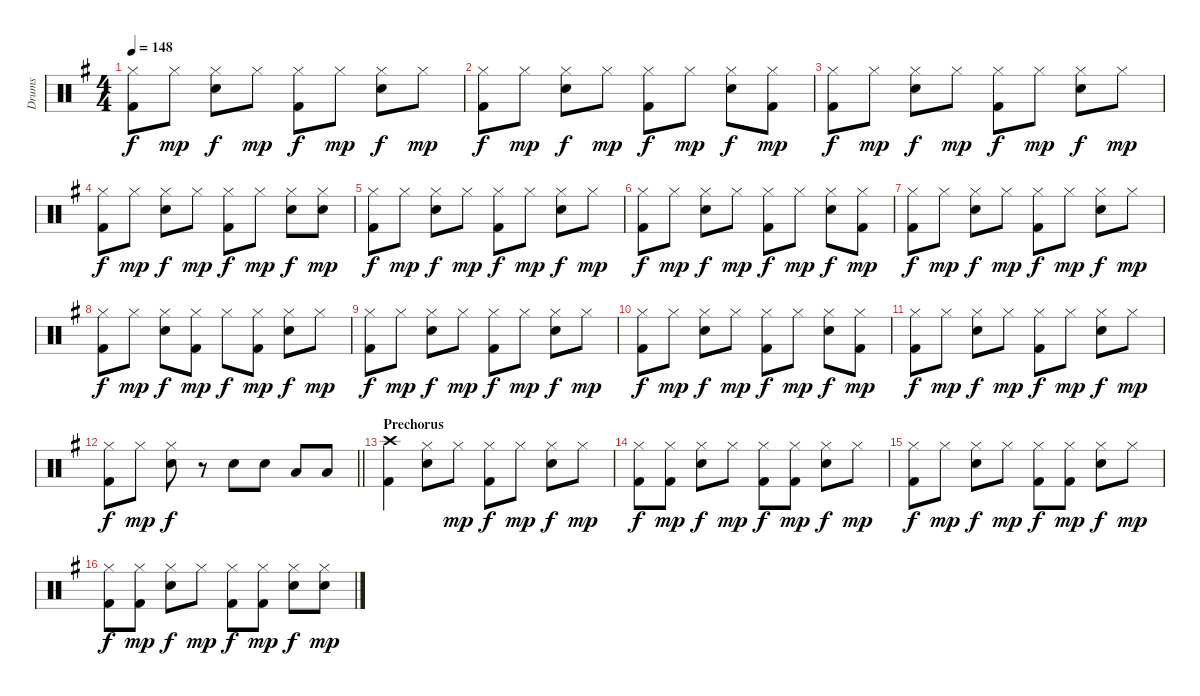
\track ("Drums" "Drums") {instrument percussion}
\staff {score}
\articulation defaults
\ts (4 4)
\tempo 148
\clef neutral
\ks g
("Hi-Hat (closed)" "Kick (hit) 2").8{dy f} "Hi-Hat (closed)".8{dy mp} ("Hi-Hat (closed)" "Electric Snare (hit)").8{dy f} "Hi-Hat (closed)".8{dy mp} ("Hi-Hat (closed)" "Kick (hit) 2").8{dy f} "Hi-Hat (closed)".8{dy mp} ("Hi-Hat (closed)" "Electric Snare (hit)").8{dy f} "Hi-Hat (closed)".8{dy mp} |
("Hi-Hat (closed)" "Kick (hit) 2").8{dy f} "Hi-Hat (closed)".8{dy mp} ("Hi-Hat (closed)" "Electric Snare (hit)").8{dy f} "Hi-Hat (closed)".8{dy mp} ("Hi-Hat (closed)" "Kick (hit) 2").8{dy f} "Hi-Hat (closed)".8{dy mp} ("Hi-Hat (closed)" "Electric Snare (hit)").8{dy f} ("Hi-Hat (closed)" "Kick (hit) 2").8{dy mp} |
("Hi-Hat (closed)" "Kick (hit) 2").8{dy f} "Hi-Hat (closed)".8{dy mp} ("Hi-Hat (closed)" "Electric Snare (hit)").8{dy f} "Hi-Hat (closed)".8{dy mp} ("Hi-Hat (closed)" "Kick (hit) 2").8{dy f} "Hi-Hat (closed)".8{dy mp} ("Hi-Hat (closed)" "Electric Snare (hit)").8{dy f} "Hi-Hat (closed)".8{dy mp} |
("Hi-Hat (closed)" "Kick (hit) 2").8{dy f} "Hi-Hat (closed)".8{dy mp} ("Hi-Hat (closed)" "Electric Snare (hit)").8{dy f} "Hi-Hat (closed)".8{dy mp} ("Hi-Hat (closed)" "Kick (hit) 2").8{dy f} "Hi-Hat (closed)".8{dy mp} ("Hi-Hat (closed)" "Electric Snare (hit)").8{dy f} ("Hi-Hat (closed)" "Electric Snare (hit)").8{dy mp} |
("Hi-Hat (closed)" "Kick (hit) 2").8{dy f} "Hi-Hat (closed)".8{dy mp} ("Hi-Hat (closed)" "Electric Snare (hit)").8{dy f} "Hi-Hat (closed)".8{dy mp} ("Hi-Hat (closed)" "Kick (hit) 2").8{dy f} "Hi-Hat (closed)".8{dy mp} ("Hi-Hat (closed)" "Electric Snare (hit)").8{dy f} "Hi-Hat (closed)".8{dy mp} |
("Hi-Hat (closed)" "Kick (hit) 2").8{dy f} "Hi-Hat (closed)".8{dy mp} ("Hi-Hat (closed)" "Electric Snare (hit)").8{dy f} "Hi-Hat (closed)".8{dy mp} ("Hi-Hat (closed)" "Kick (hit) 2").8{dy f} "Hi-Hat (closed)".8{dy mp} ("Hi-Hat (closed)" "Electric Snare (hit)").8{dy f} ("Hi-Hat (closed)" "Kick (hit) 2").8{dy mp} |
("Hi-Hat (closed)" "Kick (hit) 2").8{dy f} "Hi-Hat (closed)".8{dy mp} ("Hi-Hat (closed)" "Electric Snare (hit)").8{dy f} "Hi-Hat (closed)".8{dy mp} ("Hi-Hat (closed)" "Kick (hit) 2").8{dy f} "Hi-Hat (closed)".8{dy mp} ("Hi-Hat (closed)" "Electric Snare (hit)").8{dy f} "Hi-Hat (closed)".8{dy mp} |
("Hi-Hat (closed)" "Kick (hit) 2").8{dy f} "Hi-Hat (closed)".8{dy mp} ("Hi-Hat (closed)" "Electric Snare (hit)").8{dy f} ("Hi-Hat (closed)" "Kick (hit) 2").8{dy mp} "Hi-Hat (closed)".8{dy f} ("Hi-Hat (closed)" "Kick (hit) 2").8{dy mp} ("Hi-Hat (closed)" "Electric Snare (hit)").8{dy f} "Hi-Hat (closed)".8{dy mp} |
("Hi-Hat (closed)" "Kick (hit) 2").8{dy f} "Hi-Hat (closed)".8{dy mp} ("Hi-Hat (closed)" "Electric Snare (hit)").8{dy f} "Hi-Hat (closed)".8{dy mp} ("Hi-Hat (closed)" "Kick (hit) 2").8{dy f} "Hi-Hat (closed)".8{dy mp} ("Hi-Hat (closed)" "Electric Snare (hit)").8{dy f} "Hi-Hat (closed)".8{dy mp} |
("Hi-Hat (closed)" "Kick (hit) 2").8{dy f} "Hi-Hat (closed)".8{dy mp} ("Hi-Hat (closed)" "Electric Snare (hit)").8{dy f} "Hi-Hat (closed)".8{dy mp} ("Hi-Hat (closed)" "Kick (hit) 2").8{dy f} "Hi-Hat (closed)".8{dy mp} ("Hi-Hat (closed)" "Electric Snare (hit)").8{dy f} ("Hi-Hat (closed)" "Kick (hit) 2").8{dy mp} |
("Hi-Hat (closed)" "Kick (hit) 2").8{dy f} "Hi-Hat (closed)".8{dy mp} ("Hi-Hat (closed)" "Electric Snare (hit)").8{dy f} "Hi-Hat (closed)".8{dy mp} ("Hi-Hat (closed)" "Kick (hit) 2").8{dy f} "Hi-Hat (closed)".8{dy mp} ("Hi-Hat (closed)" "Electric Snare (hit)").8{dy f} "Hi-Hat (closed)".8{dy mp} |
\barLineRight lightlight
("Hi-Hat (closed)" "Kick (hit) 2").8{dy f} "Hi-Hat (closed)".8{dy mp} ("Hi-Hat (closed)" "Electric Snare (hit)").8{dy f} r.8 "Electric Snare (hit)".8 "Electric Snare (hit)".8 "Low Tom (hit)".8 "Low Tom (hit)".8 |
\section ("" "Prechorus")
("Crash high (hit)" "Kick (hit) 2").4 ("Hi-Hat (closed)" "Electric Snare (hit)").8 "Hi-Hat (closed)".8{dy mp} ("Hi-Hat (closed)" "Kick (hit) 2").8{dy f} "Hi-Hat (closed)".8{dy mp} ("Hi-Hat (closed)" "Electric Snare (hit)").8{dy f} "Hi-Hat (closed)".8{dy mp} |
("Hi-Hat (closed)" "Kick (hit) 2").8{dy f} ("Hi-Hat (closed)" "Kick (hit) 2").8{dy mp} ("Hi-Hat (closed)" "Electric Snare (hit)").8{dy f} "Hi-Hat (closed)".8{dy mp} ("Hi-Hat (closed)" "Kick (hit) 2").8{dy f} ("Hi-Hat (closed)" "Kick (hit) 2").8{dy mp} ("Hi-Hat (closed)" "Electric Snare (hit)").8{dy f} "Hi-Hat (closed)".8{dy mp} |
("Hi-Hat (closed)" "Kick (hit) 2").8{dy f} "Hi-Hat (closed)".8{dy mp} ("Hi-Hat (closed)" "Electric Snare (hit)").8{dy f} "Hi-Hat (closed)".8{dy mp} ("Hi-Hat (closed)" "Kick (hit) 2").8{dy f} ("Hi-Hat (closed)" "Kick (hit) 2").8{dy mp} ("Hi-Hat (closed)" "Electric Snare (hit)").8{dy f} "Hi-Hat (closed)".8{dy mp} |
("Hi-Hat (closed)" "Kick (hit) 2").8{dy f} ("Hi-Hat (closed)" "Kick (hit) 2").8{dy mp} ("Hi-Hat (closed)" "Electric Snare (hit)").8{dy f} "Hi-Hat (closed)".8{dy mp} ("Hi-Hat (closed)" "Kick (hit) 2").8{dy f} ("Hi-Hat (closed)" "Kick (hit) 2").8{dy mp} ("Hi-Hat (closed)" "Electric Snare (hit)").8{dy f} ("Hi-Hat (closed)" "Electric Snare (hit)").8{dy mp}
